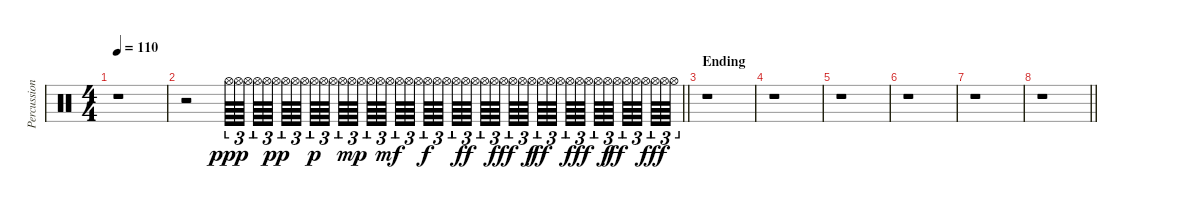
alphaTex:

\track ("Percussion" "Percussion") {instrument percussion}
\staff {score}
\articulation defaults
\ts (4 4)
\tempo 110
\clef neutral
\ks c
r.1{dy fff} |
\barLineRight lightlight
r.2 "Hi-Hat (open)".64{tu (3 2) dy ppp volume 14} "Hi-Hat (open)".64{tu (3 2)} "Hi-Hat (open)".64{tu (3 2)} "Hi-Hat (open)".64{tu (3 2)} "Hi-Hat (open)".64{tu (3 2)} "Hi-Hat (open)".64{tu (3 2) dy pp} "Hi-Hat (open)".64{tu (3 2)} "Hi-Hat (open)".64{tu (3 2)} "Hi-Hat (open)".64{tu (3 2)} "Hi-Hat (open)".64{tu (3 2) dy p} "Hi-Hat (open)".64{tu (3 2)} "Hi-Hat (open)".64{tu (3 2)} "Hi-Hat (open)".64{tu (3 2)} "Hi-Hat (open)".64{tu (3 2) dy mp} "Hi-Hat (open)".64{tu (3 2)} "Hi-Hat (open)".64{tu (3 2)} "Hi-Hat (open)".64{tu (3 2)} "Hi-Hat (open)".64{tu (3 2) dy mf} "Hi-Hat (open)".64{tu (3 2)} "Hi-Hat (open)".64{tu (3 2)} "Hi-Hat (open)".64{tu (3 2)} "Hi-Hat (open)".64{tu (3 2) dy f} "Hi-Hat (open)".64{tu (3 2)} "Hi-Hat (open)".64{tu (3 2)} "Hi-Hat (open)".64{tu (3 2)} "Hi-Hat (open)".64{tu (3 2) dy ff} "Hi-Hat (open)".64{tu (3 2)} "Hi-Hat (open)".64{tu (3 2)} "Hi-Hat (open)".64{tu (3 2)} "Hi-Hat (open)".64{tu (3 2) dy fff} "Hi-Hat (open)".64{tu (3 2)} "Hi-Hat (open)".64{tu (3 2)} "Hi-Hat (open)".64{tu (3 2) dy f} "Hi-Hat (open)".64{tu (3 2) dy ff} "Hi-Hat (open)".64{tu (3 2)} "Hi-Hat (open)".64{tu (3 2)} "Hi-Hat (open)".64{tu (3 2)} "Hi-Hat (open)".64{tu (3 2) dy fff} "Hi-Hat (open)".64{tu (3 2)} "Hi-Hat (open)".64{tu (3 2)} "Hi-Hat (open)".64{tu (3 2) dy f} "Hi-Hat (open)".64{tu (3 2) dy ff} "Hi-Hat (open)".64{tu (3 2)} "Hi-Hat (open)".64{tu (3 2)} "Hi-Hat (open)".64{tu (3 2)} "Hi-Hat (open)".64{tu (3 2) dy fff} "Hi-Hat (open)".64{tu (3 2)} "Hi-Hat (open)".64{tu (3 2)} |
\section ("" "Ending")
r.1 |
r.1 |
r.1 |
r.1 |
r.1 |
\barLineRight lightlight
r.1
